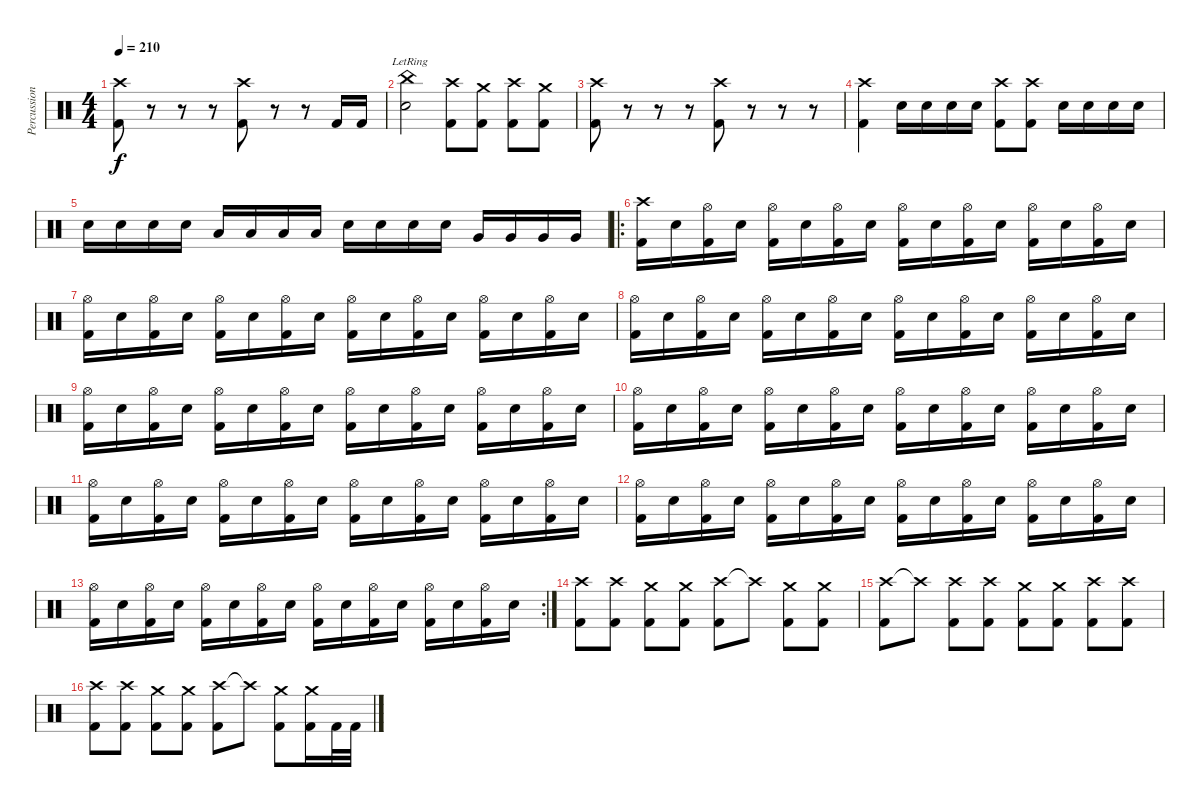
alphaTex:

\track ("Percussion" "Percussion") {instrument percussion}
\staff {score}
\articulation defaults
\ts (4 4)
\tempo 210
\clef neutral
\ks c
("Crash high (hit)" "Kick (hit) 2").8{dy f} r.8 r.8 r.8 ("Crash high (hit)" "Kick (hit) 2").8 r.8 r.8 "Kick (hit) 2".16 "Kick (hit) 2".16 |
("China (hit)"{lr} "Electric Snare (hit)").2 ("Crash high (hit)" "Kick (hit) 2").8 ("Crash medium (hit)" "Kick (hit) 2").8 ("Crash high (hit)" "Kick (hit) 2").8 ("Crash medium (hit)" "Kick (hit) 2").8 |
("Crash high (hit)" "Kick (hit) 2").8 r.8 r.8 r.8 ("Crash high (hit)" "Kick (hit) 2").8 r.8 r.8 r.8 |
("Crash high (hit)" "Kick (hit) 2").4 "Electric Snare (hit)".16 "Electric Snare (hit)".16 "Electric Snare (hit)".16 "Electric Snare (hit)".16 ("Crash high (hit)" "Kick (hit) 2").8 ("Crash high (hit)" "Kick (hit) 2").8 "Electric Snare (hit)".16 "Electric Snare (hit)".16 "Electric Snare (hit)".16 "Electric Snare (hit)".16 |
"Electric Snare (hit)".16 "Electric Snare (hit)".16 "Electric Snare (hit)".16 "Electric Snare (hit)".16 "Low Tom (hit)".16 "Low Tom (hit)".16 "Low Tom (hit)".16 "Low Tom (hit)".16 "Electric Snare (hit)".16 "Electric Snare (hit)".16 "Electric Snare (hit)".16 "Electric Snare (hit)".16 "Very Low Tom (hit)".16 "Very Low Tom (hit)".16 "Very Low Tom (hit)".16 "Very Low Tom (hit)".16 |
\ro
("Crash high (hit)" "Kick (hit) 2").16 "Electric Snare (hit)".16 ("Hi-Hat (open)" "Kick (hit) 2").16 "Electric Snare (hit)".16 ("Hi-Hat (open)" "Kick (hit) 2").16 "Electric Snare (hit)".16 ("Hi-Hat (open)" "Kick (hit) 2").16 "Electric Snare (hit)".16 ("Hi-Hat (open)" "Kick (hit) 2").16 "Electric Snare (hit)".16 ("Hi-Hat (open)" "Kick (hit) 2").16 "Electric Snare (hit)".16 ("Hi-Hat (open)" "Kick (hit) 2").16 "Electric Snare (hit)".16 ("Hi-Hat (open)" "Kick (hit) 2").16 "Electric Snare (hit)".16 |
("Hi-Hat (open)" "Kick (hit) 2").16 "Electric Snare (hit)".16 ("Hi-Hat (open)" "Kick (hit) 2").16 "Electric Snare (hit)".16 ("Hi-Hat (open)" "Kick (hit) 2").16 "Electric Snare (hit)".16 ("Hi-Hat (open)" "Kick (hit) 2").16 "Electric Snare (hit)".16 ("Hi-Hat (open)" "Kick (hit) 2").16 "Electric Snare (hit)".16 ("Hi-Hat (open)" "Kick (hit) 2").16 "Electric Snare (hit)".16 ("Hi-Hat (open)" "Kick (hit) 2").16 "Electric Snare (hit)".16 ("Hi-Hat (open)" "Kick (hit) 2").16 "Electric Snare (hit)".16 |
("Hi-Hat (open)" "Kick (hit) 2").16 "Electric Snare (hit)".16 ("Hi-Hat (open)" "Kick (hit) 2").16 "Electric Snare (hit)".16 ("Hi-Hat (open)" "Kick (hit) 2").16 "Electric Snare (hit)".16 ("Hi-Hat (open)" "Kick (hit) 2").16 "Electric Snare (hit)".16 ("Hi-Hat (open)" "Kick (hit) 2").16 "Electric Snare (hit)".16 ("Hi-Hat (open)" "Kick (hit) 2").16 "Electric Snare (hit)".16 ("Hi-Hat (open)" "Kick (hit) 2").16 "Electric Snare (hit)".16 ("Hi-Hat (open)" "Kick (hit) 2").16 "Electric Snare (hit)".16 |
("Hi-Hat (open)" "Kick (hit) 2").16 "Electric Snare (hit)".16 ("Hi-Hat (open)" "Kick (hit) 2").16 "Electric Snare (hit)".16 ("Hi-Hat (open)" "Kick (hit) 2").16 "Electric Snare (hit)".16 ("Hi-Hat (open)" "Kick (hit) 2").16 "Electric Snare (hit)".16 ("Hi-Hat (open)" "Kick (hit) 2").16 "Electric Snare (hit)".16 ("Hi-Hat (open)" "Kick (hit) 2").16 "Electric Snare (hit)".16 ("Hi-Hat (open)" "Kick (hit) 2").16 "Electric Snare (hit)".16 ("Hi-Hat (open)" "Kick (hit) 2").16 "Electric Snare (hit)".16 |
("Hi-Hat (open)" "Kick (hit) 2").16 "Electric Snare (hit)".16 ("Hi-Hat (open)" "Kick (hit) 2").16 "Electric Snare (hit)".16 ("Hi-Hat (open)" "Kick (hit) 2").16 "Electric Snare (hit)".16 ("Hi-Hat (open)" "Kick (hit) 2").16 "Electric Snare (hit)".16 ("Hi-Hat (open)" "Kick (hit) 2").16 "Electric Snare (hit)".16 ("Hi-Hat (open)" "Kick (hit) 2").16 "Electric Snare (hit)".16 ("Hi-Hat (open)" "Kick (hit) 2").16 "Electric Snare (hit)".16 ("Hi-Hat (open)" "Kick (hit) 2").16 "Electric Snare (hit)".16 |
("Hi-Hat (open)" "Kick (hit) 2").16 "Electric Snare (hit)".16 ("Hi-Hat (open)" "Kick (hit) 2").16 "Electric Snare (hit)".16 ("Hi-Hat (open)" "Kick (hit) 2").16 "Electric Snare (hit)".16 ("Hi-Hat (open)" "Kick (hit) 2").16 "Electric Snare (hit)".16 ("Hi-Hat (open)" "Kick (hit) 2").16 "Electric Snare (hit)".16 ("Hi-Hat (open)" "Kick (hit) 2").16 "Electric Snare (hit)".16 ("Hi-Hat (open)" "Kick (hit) 2").16 "Electric Snare (hit)".16 ("Hi-Hat (open)" "Kick (hit) 2").16 "Electric Snare (hit)".16 |
("Hi-Hat (open)" "Kick (hit) 2").16 "Electric Snare (hit)".16 ("Hi-Hat (open)" "Kick (hit) 2").16 "Electric Snare (hit)".16 ("Hi-Hat (open)" "Kick (hit) 2").16 "Electric Snare (hit)".16 ("Hi-Hat (open)" "Kick (hit) 2").16 "Electric Snare (hit)".16 ("Hi-Hat (open)" "Kick (hit) 2").16 "Electric Snare (hit)".16 ("Hi-Hat (open)" "Kick (hit) 2").16 "Electric Snare (hit)".16 ("Hi-Hat (open)" "Kick (hit) 2").16 "Electric Snare (hit)".16 ("Hi-Hat (open)" "Kick (hit) 2").16 "Electric Snare (hit)".16 |
\rc 2
("Hi-Hat (open)" "Kick (hit) 2").16 "Electric Snare (hit)".16 ("Hi-Hat (open)" "Kick (hit) 2").16 "Electric Snare (hit)".16 ("Hi-Hat (open)" "Kick (hit) 2").16 "Electric Snare (hit)".16 ("Hi-Hat (open)" "Kick (hit) 2").16 "Electric Snare (hit)".16 ("Hi-Hat (open)" "Kick (hit) 2").16 "Electric Snare (hit)".16 ("Hi-Hat (open)" "Kick (hit) 2").16 "Electric Snare (hit)".16 ("Hi-Hat (open)" "Kick (hit) 2").16 "Electric Snare (hit)".16 ("Hi-Hat (open)" "Kick (hit) 2").16 "Electric Snare (hit)".16 |
("Crash high (hit)" "Kick (hit) 2").8 ("Crash high (hit)" "Kick (hit) 2").8 ("Crash medium (hit)" "Kick (hit) 2").8 ("Crash medium (hit)" "Kick (hit) 2").8 ("Crash high (hit)" "Kick (hit) 2").8 "Crash high (hit)"{t}.8 ("Crash medium (hit)" "Kick (hit) 2").8 ("Crash medium (hit)" "Kick (hit) 2").8 |
("Crash high (hit)" "Kick (hit) 2").8 "Crash high (hit)"{t}.8 ("Crash high (hit)" "Kick (hit) 2").8 ("Crash high (hit)" "Kick (hit) 2").8 ("Crash medium (hit)" "Kick (hit) 2").8 ("Crash medium (hit)" "Kick (hit) 2").8 ("Crash high (hit)" "Kick (hit) 2").8 ("Crash high (hit)" "Kick (hit) 2").8 |
("Crash high (hit)" "Kick (hit) 2").8 ("Crash high (hit)" "Kick (hit) 2").8 ("Crash medium (hit)" "Kick (hit) 2").8 ("Crash medium (hit)" "Kick (hit) 2").8 ("Crash high (hit)" "Kick (hit) 2").8 "Crash high (hit)"{t}.8 ("Crash medium (hit)" "Kick (hit) 2").8 ("Crash medium (hit)" "Kick (hit) 2").16 "Kick (hit) 2".32 "Kick (hit) 2".32
